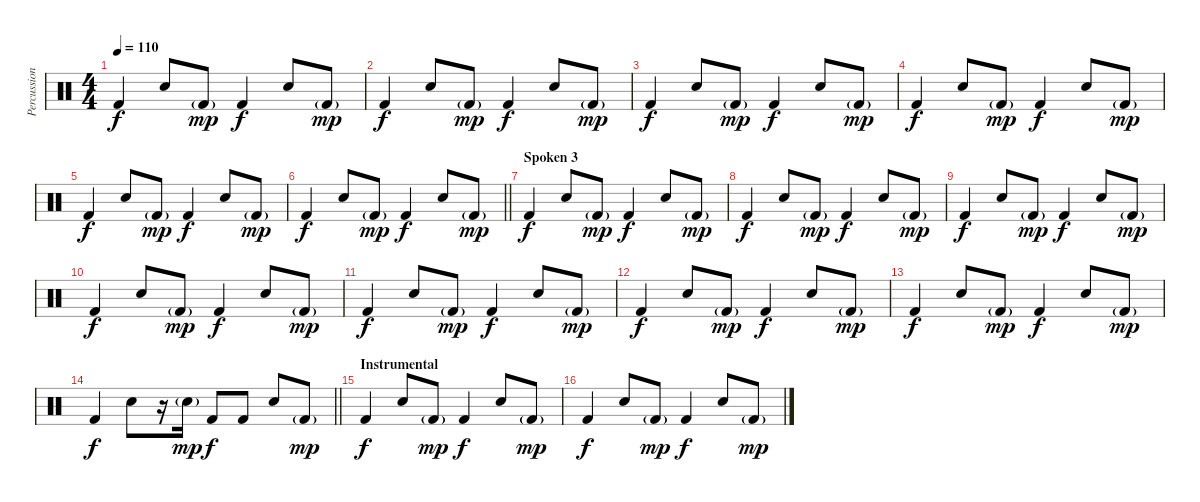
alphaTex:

\track ("Percussion" "Percussion") {instrument percussion}
\staff {score}
\articulation defaults
\ts (4 4)
\tempo 110
\clef neutral
\ks c "Kick (hit) 2".4{dy f} "Snare (hit) 2".8 "Kick (hit) 2"{g}.8{dy mp} "Kick (hit) 2".4{dy f} "Snare (hit) 2".8 "Kick (hit) 2"{g}.8{dy mp}
|
"Kick (hit) 2".4{dy f} "Snare (hit) 2".8 "Kick (hit) 2"{g}.8{dy mp} "Kick (hit) 2".4{dy f} "Snare (hit) 2".8 "Kick (hit) 2"{g}.8{dy mp} |
"Kick (hit) 2".4{dy f} "Snare (hit) 2".8 "Kick (hit) 2"{g}.8{dy mp} "Kick (hit) 2".4{dy f} "Snare (hit) 2".8 "Kick (hit) 2"{g}.8{dy mp} |
"Kick (hit) 2".4{dy f} "Snare (hit) 2".8 "Kick (hit) 2"{g}.8{dy mp} "Kick (hit) 2".4{dy f} "Snare (hit) 2".8 "Kick (hit) 2"{g}.8{dy mp} |
"Kick (hit) 2".4{dy f} "Snare (hit) 2".8 "Kick (hit) 2"{g}.8{dy mp} "Kick (hit) 2".4{dy f} "Snare (hit) 2".8 "Kick (hit) 2"{g}.8{dy mp} |
\barLineRight lightlight "Kick (hit) 2".4{dy f} "Snare (hit) 2".8 "Kick (hit) 2"{g}.8{dy mp} "Kick (hit) 2".4{dy f} "Snare (hit) 2".8 "Kick (hit) 2"{g}.8{dy mp}
|
\section ("" "Spoken 3")
"Kick (hit) 2".4{dy f} "Snare (hit) 2".8 "Kick (hit) 2"{g}.8{dy mp} "Kick (hit) 2".4{dy f} "Snare (hit) 2".8 "Kick (hit) 2"{g}.8{dy mp} |
"Kick (hit) 2".4{dy f} "Snare (hit) 2".8 "Kick (hit) 2"{g}.8{dy mp} "Kick (hit) 2".4{dy f} "Snare (hit) 2".8 "Kick (hit) 2"{g}.8{dy mp} |
"Kick (hit) 2".4{dy f} "Snare (hit) 2".8 "Kick (hit) 2"{g}.8{dy mp} "Kick (hit) 2".4{dy f} "Snare (hit) 2".8 "Kick (hit) 2"{g}.8{dy mp} |
"Kick (hit) 2".4{dy f} "Snare (hit) 2".8 "Kick (hit) 2"{g}.8{dy mp} "Kick (hit) 2".4{dy f} "Snare (hit) 2".8 "Kick (hit) 2"{g}.8{dy mp} |
"Kick (hit) 2".4{dy f} "Snare (hit) 2".8 "Kick (hit) 2"{g}.8{dy mp} "Kick (hit) 2".4{dy f} "Snare (hit) 2".8 "Kick (hit) 2"{g}.8{dy mp} |
"Kick (hit) 2".4{dy f} "Snare (hit) 2".8 "Kick (hit) 2"{g}.8{dy mp} "Kick (hit) 2".4{dy f} "Snare (hit) 2".8 "Kick (hit) 2"{g}.8{dy mp} |
"Kick (hit) 2".4{dy f} "Snare (hit) 2".8 "Kick (hit) 2"{g}.8{dy mp} "Kick (hit) 2".4{dy f} "Snare (hit) 2".8 "Kick (hit) 2"{g}.8{dy mp} |
\barLineRight lightlight "Kick (hit) 2".4{dy f} "Snare (hit) 2".8
r.16 "Snare (hit) 2"{g}.16{dy mp} "Kick (hit) 2".8{dy f} "Kick (hit) 2".8 "Snare (hit) 2".8 "Kick (hit) 2"{g}.8{dy mp} |
\section ("" "Instrumental")
"Kick (hit) 2".4{dy f} "Snare (hit) 2".8 "Kick (hit) 2"{g}.8{dy mp} "Kick (hit) 2".4{dy f} "Snare (hit) 2".8 "Kick (hit) 2"{g}.8{dy mp} |
"Kick (hit) 2".4{dy f} "Snare (hit) 2".8 "Kick (hit) 2"{g}.8{dy mp} "Kick (hit) 2".4{dy f} "Snare (hit) 2".8 "Kick (hit) 2"{g}.8{dy mp}
